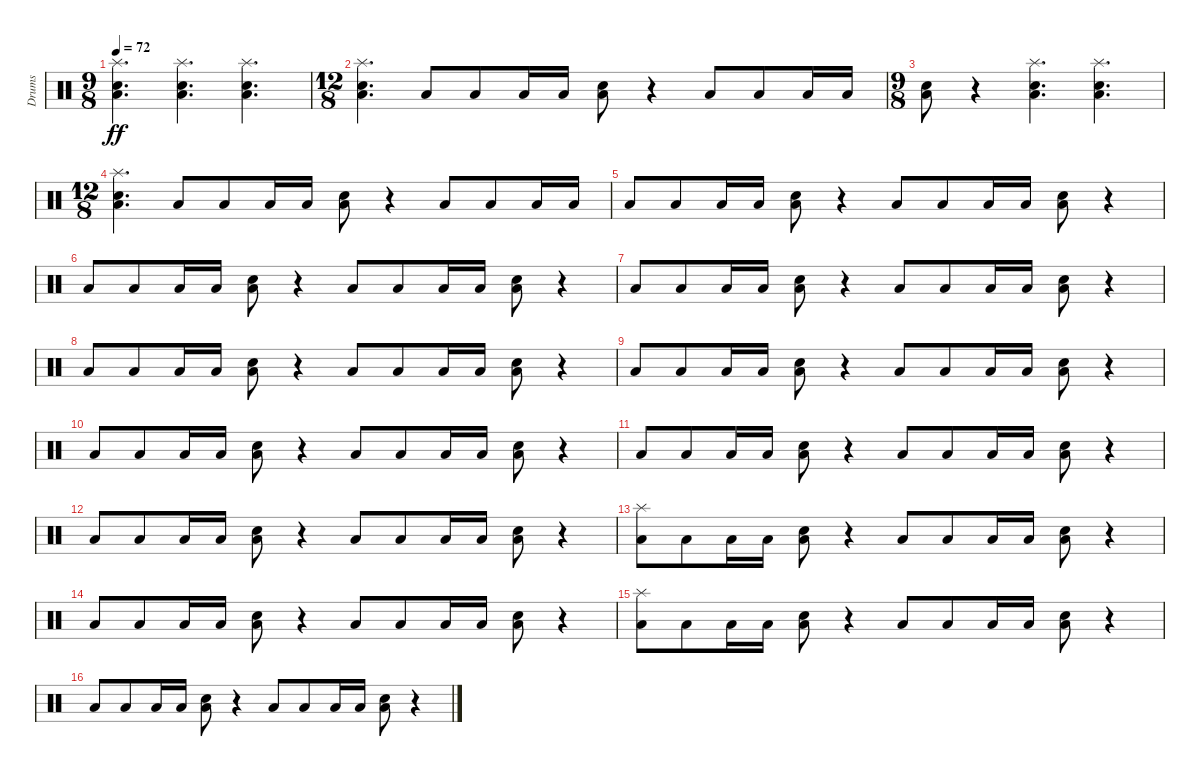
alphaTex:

\track ("Drums" "Drums") {instrument percussion}
\staff {score}
\articulation defaults
\ts (9 8)
\tempo 72
\clef neutral
\ks c
("Electric Snare (hit)" "Low Floor Tom (hit)" "Splash (hit)").4{d dy ff} ("Electric Snare (hit)" "Low Floor Tom (hit)" "Splash (hit)").4{d} ("Electric Snare (hit)" "Low Floor Tom (hit)" "Splash (hit)").4{d} |
\ts (12 8)
("Electric Snare (hit)" "Low Floor Tom (hit)" "Splash (hit)").4{d} "Low Floor Tom (hit)".8 "Low Floor Tom (hit)".8 "Low Floor Tom (hit)".16 "Low Floor Tom (hit)".16 ("Electric Snare (hit)" "Low Floor Tom (hit)").8 r.4 "Low Floor Tom (hit)".8 "Low Floor Tom (hit)".8 "Low Floor Tom (hit)".16 "Low Floor Tom (hit)".16 |
\ts (9 8)
("Electric Snare (hit)" "Low Floor Tom (hit)").8 r.4 ("Electric Snare (hit)" "Low Floor Tom (hit)" "Splash (hit)").4{d} ("Electric Snare (hit)" "Low Floor Tom (hit)" "Splash (hit)").4{d} |
\ts (12 8)
("Electric Snare (hit)" "Low Floor Tom (hit)" "Splash (hit)").4{d} "Low Floor Tom (hit)".8 "Low Floor Tom (hit)".8 "Low Floor Tom (hit)".16 "Low Floor Tom (hit)".16 ("Electric Snare (hit)" "Low Floor Tom (hit)").8 r.4 "Low Floor Tom (hit)".8 "Low Floor Tom (hit)".8 "Low Floor Tom (hit)".16 "Low Floor Tom (hit)".16 |
"Low Floor Tom (hit)".8 "Low Floor Tom (hit)".8 "Low Floor Tom (hit)".16 "Low Floor Tom (hit)".16 ("Electric Snare (hit)" "Low Floor Tom (hit)").8 r.4 "Low Floor Tom (hit)".8 "Low Floor Tom (hit)".8 "Low Floor Tom (hit)".16 "Low Floor Tom (hit)".16 ("Electric Snare (hit)" "Low Floor Tom (hit)").8 r.4 |
"Low Floor Tom (hit)".8 "Low Floor Tom (hit)".8 "Low Floor Tom (hit)".16 "Low Floor Tom (hit)".16 ("Electric Snare (hit)" "Low Floor Tom (hit)").8 r.4 "Low Floor Tom (hit)".8 "Low Floor Tom (hit)".8 "Low Floor Tom (hit)".16 "Low Floor Tom (hit)".16 ("Electric Snare (hit)" "Low Floor Tom (hit)").8 r.4 |
"Low Floor Tom (hit)".8 "Low Floor Tom (hit)".8 "Low Floor Tom (hit)".16 "Low Floor Tom (hit)".16 ("Electric Snare (hit)" "Low Floor Tom (hit)").8 r.4 "Low Floor Tom (hit)".8 "Low Floor Tom (hit)".8 "Low Floor Tom (hit)".16 "Low Floor Tom (hit)".16 ("Electric Snare (hit)" "Low Floor Tom (hit)").8 r.4 |
"Low Floor Tom (hit)".8 "Low Floor Tom (hit)".8 "Low Floor Tom (hit)".16 "Low Floor Tom (hit)".16 ("Electric Snare (hit)" "Low Floor Tom (hit)").8 r.4 "Low Floor Tom (hit)".8 "Low Floor Tom (hit)".8 "Low Floor Tom (hit)".16 "Low Floor Tom (hit)".16 ("Electric Snare (hit)" "Low Floor Tom (hit)").8 r.4 |
"Low Floor Tom (hit)".8 "Low Floor Tom (hit)".8 "Low Floor Tom (hit)".16 "Low Floor Tom (hit)".16 ("Electric Snare (hit)" "Low Floor Tom (hit)").8 r.4 "Low Floor Tom (hit)".8 "Low Floor Tom (hit)".8 "Low Floor Tom (hit)".16 "Low Floor Tom (hit)".16 ("Electric Snare (hit)" "Low Floor Tom (hit)").8 r.4 |
"Low Floor Tom (hit)".8 "Low Floor Tom (hit)".8 "Low Floor Tom (hit)".16 "Low Floor Tom (hit)".16 ("Electric Snare (hit)" "Low Floor Tom (hit)").8 r.4 "Low Floor Tom (hit)".8 "Low Floor Tom (hit)".8 "Low Floor Tom (hit)".16 "Low Floor Tom (hit)".16 ("Electric Snare (hit)" "Low Floor Tom (hit)").8 r.4 |
"Low Floor Tom (hit)".8 "Low Floor Tom (hit)".8 "Low Floor Tom (hit)".16 "Low Floor Tom (hit)".16 ("Electric Snare (hit)" "Low Floor Tom (hit)").8 r.4 "Low Floor Tom (hit)".8 "Low Floor Tom (hit)".8 "Low Floor Tom (hit)".16 "Low Floor Tom (hit)".16 ("Electric Snare (hit)" "Low Floor Tom (hit)").8 r.4 |
"Low Floor Tom (hit)".8 "Low Floor Tom (hit)".8 "Low Floor Tom (hit)".16 "Low Floor Tom (hit)".16 ("Electric Snare (hit)" "Low Floor Tom (hit)").8 r.4 "Low Floor Tom (hit)".8 "Low Floor Tom (hit)".8 "Low Floor Tom (hit)".16 "Low Floor Tom (hit)".16 ("Electric Snare (hit)" "Low Floor Tom (hit)").8 r.4 |
("Low Floor Tom (hit)" "Splash (hit)").8 "Low Floor Tom (hit)".8 "Low Floor Tom (hit)".16 "Low Floor Tom (hit)".16 ("Electric Snare (hit)" "Low Floor Tom (hit)").8 r.4 "Low Floor Tom (hit)".8 "Low Floor Tom (hit)".8 "Low Floor Tom (hit)".16 "Low Floor Tom (hit)".16 ("Electric Snare (hit)" "Low Floor Tom (hit)").8 r.4 |
"Low Floor Tom (hit)".8 "Low Floor Tom (hit)".8 "Low Floor Tom (hit)".16 "Low Floor Tom (hit)".16 ("Electric Snare (hit)" "Low Floor Tom (hit)").8 r.4 "Low Floor Tom (hit)".8 "Low Floor Tom (hit)".8 "Low Floor Tom (hit)".16 "Low Floor Tom (hit)".16 ("Electric Snare (hit)" "Low Floor Tom (hit)").8 r.4 |
("Low Floor Tom (hit)" "Splash (hit)").8 "Low Floor Tom (hit)".8 "Low Floor Tom (hit)".16 "Low Floor Tom (hit)".16 ("Electric Snare (hit)" "Low Floor Tom (hit)").8 r.4 "Low Floor Tom (hit)".8 "Low Floor Tom (hit)".8 "Low Floor Tom (hit)".16 "Low Floor Tom (hit)".16 ("Electric Snare (hit)" "Low Floor Tom (hit)").8 r.4 |
"Low Floor Tom (hit)".8 "Low Floor Tom (hit)".8 "Low Floor Tom (hit)".16 "Low Floor Tom (hit)".16 ("Electric Snare (hit)" "Low Floor Tom (hit)").8 r.4 "Low Floor Tom (hit)".8 "Low Floor Tom (hit)".8 "Low Floor Tom (hit)".16 "Low Floor Tom (hit)".16 ("Electric Snare (hit)" "Low Floor Tom (hit)").8 r.4
